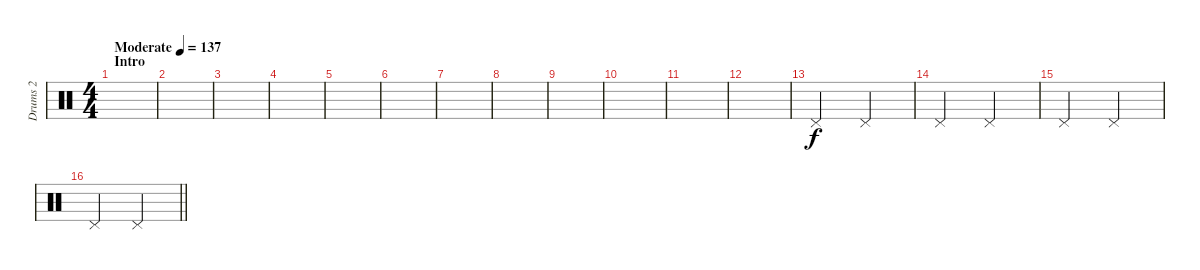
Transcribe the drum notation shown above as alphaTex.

\track ("Drums 2" "Drums 2") {instrument percussion}
\staff {score}
\articulation defaults
\ts (4 4)
\section ("" "Intro")
\tempo (137 "Moderate")
\clef neutral
\ks c
|
|
|
|
|
|
|
|
|
|
|
|
"Pedal Hi-Hat (hit)".2 "Pedal Hi-Hat (hit)".2 |
"Pedal Hi-Hat (hit)".2 "Pedal Hi-Hat (hit)".2 |
"Pedal Hi-Hat (hit)".2 "Pedal Hi-Hat (hit)".2 |
\barLineRight lightlight "Pedal Hi-Hat (hit)".2 "Pedal Hi-Hat (hit)".2
